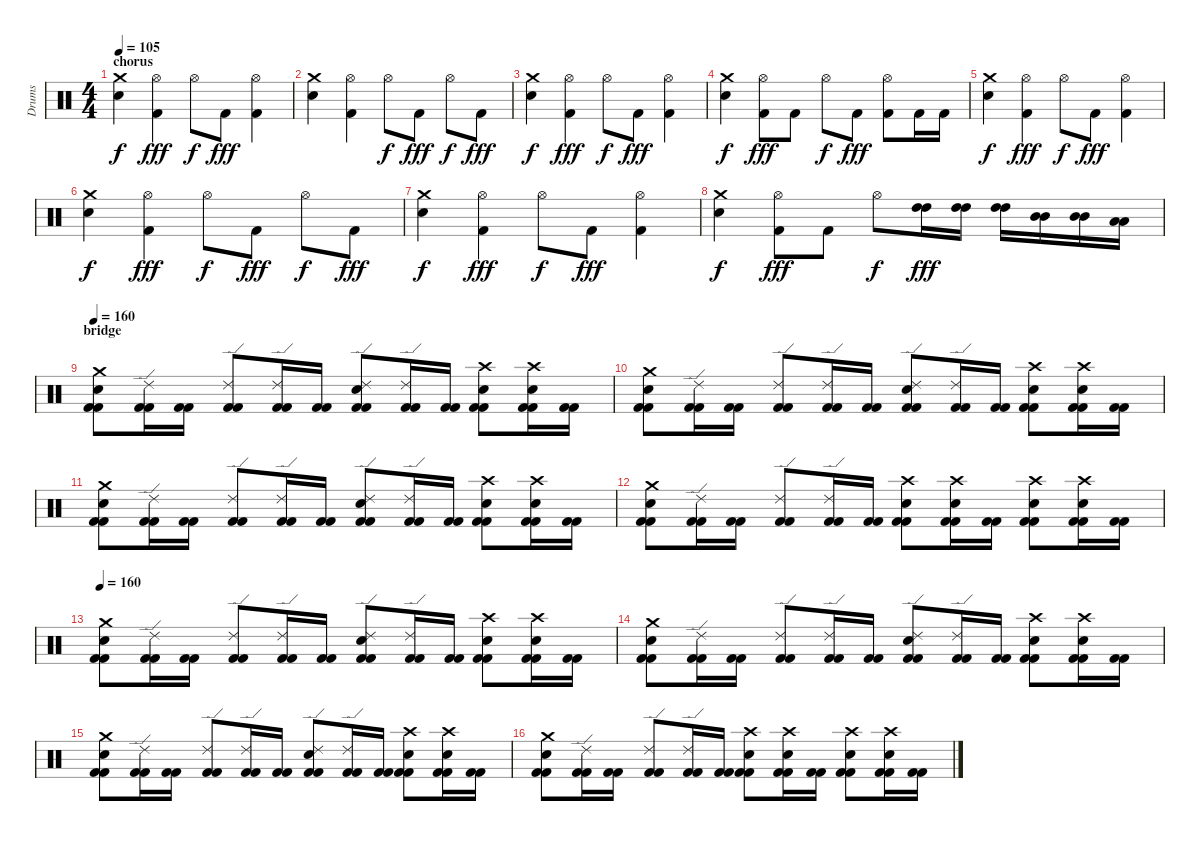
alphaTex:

\track ("Drums" "Drums") {instrument percussion}
\staff {score}
\articulation defaults
\ts (4 4)
\section ("" "chorus")
\tempo 105
\clef neutral
\ks c
("Crash medium (hit)" "Electric Snare (hit)").4{dy f} ("Hi-Hat (open)" "Kick (hit) 2").4{dy fff} "Hi-Hat (open)".8{dy f} "Kick (hit) 2".8{dy fff} ("Hi-Hat (open)" "Kick (hit) 2").4 |
("Crash medium (hit)" "Electric Snare (hit)").4 ("Hi-Hat (open)" "Kick (hit) 2").4 "Hi-Hat (open)".8{dy f} "Kick (hit) 2".8{dy fff} "Hi-Hat (open)".8{dy f} "Kick (hit) 2".8{dy fff} |
("Crash medium (hit)" "Electric Snare (hit)").4{dy f} ("Hi-Hat (open)" "Kick (hit) 2").4{dy fff} "Hi-Hat (open)".8{dy f} "Kick (hit) 2".8{dy fff} ("Hi-Hat (open)" "Kick (hit) 2").4 |
("Crash medium (hit)" "Electric Snare (hit)").4{dy f} ("Hi-Hat (open)" "Kick (hit) 2").8{dy fff} "Kick (hit) 2".8 "Hi-Hat (open)".8{dy f} "Kick (hit) 2".8{dy fff} ("Hi-Hat (open)" "Kick (hit) 2").8 "Kick (hit) 2".16 "Kick (hit) 2".16 |
("Crash medium (hit)" "Electric Snare (hit)").4{dy f} ("Hi-Hat (open)" "Kick (hit) 2").4{dy fff} "Hi-Hat (open)".8{dy f} "Kick (hit) 2".8{dy fff} ("Hi-Hat (open)" "Kick (hit) 2").4 |
("Crash medium (hit)" "Electric Snare (hit)").4{dy f} ("Hi-Hat (open)" "Kick (hit) 2").4{dy fff} "Hi-Hat (open)".8{dy f} "Kick (hit) 2".8{dy fff} "Hi-Hat (open)".8{dy f} "Kick (hit) 2".8{dy fff} |
("Crash medium (hit)" "Electric Snare (hit)").4{dy f} ("Hi-Hat (open)" "Kick (hit) 2").4{dy fff} "Hi-Hat (open)".8{dy f} "Kick (hit) 2".8{dy fff} ("Hi-Hat (open)" "Kick (hit) 2").4 |
("Crash medium (hit)" "Electric Snare (hit)").4{dy f} ("Hi-Hat (open)" "Kick (hit) 2").8{dy fff} "Kick (hit) 2".8 "Hi-Hat (open)".8{dy f} ("High Tom (hit)" "High Tom (hit)").16{dy fff} ("High Tom (hit)" "High Tom (hit)").16 ("High Tom (hit)" "High Tom (hit)").16 ("Mid Tom (hit)" "Mid Tom (hit)").16 ("Mid Tom (hit)" "Mid Tom (hit)").16 ("Low Tom (hit)" "Low Tom (hit)").16 |
\section ("" "bridge")
\tempo 160
("Crash medium (hit)" "Electric Snare (hit)" "Kick (hit) 2" "Kick (hit) 2").8 ("Ride (edge) 2" "Kick (hit) 2" "Kick (hit) 2").16 ("Kick (hit) 2" "Kick (hit) 2").16 ("Ride (edge) 2" "Kick (hit) 2" "Kick (hit) 2").8 ("Ride (edge) 2" "Kick (hit) 2" "Kick (hit) 2").16 ("Kick (hit) 2" "Kick (hit) 2").16 ("Ride (edge) 2" "Electric Snare (hit)" "Kick (hit) 2" "Kick (hit) 2").8 ("Ride (edge) 2" "Kick (hit) 2" "Kick (hit) 2").16 ("Kick (hit) 2" "Kick (hit) 2").16 ("Crash high (hit)" "Electric Snare (hit)" "Kick (hit) 2" "Kick (hit) 2").8 ("Crash high (hit)" "Electric Snare (hit)" "Kick (hit) 2" "Kick (hit) 2").16 ("Kick (hit) 2" "Kick (hit) 2").16 |
("Crash medium (hit)" "Electric Snare (hit)" "Kick (hit) 2" "Kick (hit) 2").8 ("Ride (edge) 2" "Kick (hit) 2" "Kick (hit) 2").16 ("Kick (hit) 2" "Kick (hit) 2").16 ("Ride (edge) 2" "Kick (hit) 2" "Kick (hit) 2").8 ("Ride (edge) 2" "Kick (hit) 2" "Kick (hit) 2").16 ("Kick (hit) 2" "Kick (hit) 2").16 ("Ride (edge) 2" "Electric Snare (hit)" "Kick (hit) 2" "Kick (hit) 2").8 ("Ride (edge) 2" "Kick (hit) 2" "Kick (hit) 2").16 ("Kick (hit) 2" "Kick (hit) 2").16 ("Crash high (hit)" "Electric Snare (hit)" "Kick (hit) 2" "Kick (hit) 2").8 ("Crash high (hit)" "Electric Snare (hit)" "Kick (hit) 2" "Kick (hit) 2").16 ("Kick (hit) 2" "Kick (hit) 2").16 |
("Crash medium (hit)" "Electric Snare (hit)" "Kick (hit) 2" "Kick (hit) 2").8 ("Ride (edge) 2" "Kick (hit) 2" "Kick (hit) 2").16 ("Kick (hit) 2" "Kick (hit) 2").16 ("Ride (edge) 2" "Kick (hit) 2" "Kick (hit) 2").8 ("Ride (edge) 2" "Kick (hit) 2" "Kick (hit) 2").16 ("Kick (hit) 2" "Kick (hit) 2").16 ("Ride (edge) 2" "Electric Snare (hit)" "Kick (hit) 2" "Kick (hit) 2").8 ("Ride (edge) 2" "Kick (hit) 2" "Kick (hit) 2").16 ("Kick (hit) 2" "Kick (hit) 2").16 ("Crash high (hit)" "Electric Snare (hit)" "Kick (hit) 2" "Kick (hit) 2").8 ("Crash high (hit)" "Electric Snare (hit)" "Kick (hit) 2" "Kick (hit) 2").16 ("Kick (hit) 2" "Kick (hit) 2").16 |
("Crash medium (hit)" "Electric Snare (hit)" "Kick (hit) 2" "Kick (hit) 2").8 ("Ride (edge) 2" "Kick (hit) 2" "Kick (hit) 2").16 ("Kick (hit) 2" "Kick (hit) 2").16 ("Ride (edge) 2" "Kick (hit) 2" "Kick (hit) 2").8 ("Ride (edge) 2" "Kick (hit) 2" "Kick (hit) 2").16 ("Kick (hit) 2" "Kick (hit) 2").16 ("Crash high (hit)" "Electric Snare (hit)" "Kick (hit) 2" "Kick (hit) 2").8 ("Crash high (hit)" "Electric Snare (hit)" "Kick (hit) 2" "Kick (hit) 2").16 ("Kick (hit) 2" "Kick (hit) 2").16 ("Crash high (hit)" "Electric Snare (hit)" "Kick (hit) 2" "Kick (hit) 2").8 ("Crash high (hit)" "Electric Snare (hit)" "Kick (hit) 2" "Kick (hit) 2").16 ("Kick (hit) 2" "Kick (hit) 2").16 |
\tempo 160
("Crash medium (hit)" "Electric Snare (hit)" "Kick (hit) 2" "Kick (hit) 2").8 ("Ride (edge) 2" "Kick (hit) 2" "Kick (hit) 2").16 ("Kick (hit) 2" "Kick (hit) 2").16 ("Ride (edge) 2" "Kick (hit) 2" "Kick (hit) 2").8 ("Ride (edge) 2" "Kick (hit) 2" "Kick (hit) 2").16 ("Kick (hit) 2" "Kick (hit) 2").16 ("Ride (edge) 2" "Electric Snare (hit)" "Kick (hit) 2" "Kick (hit) 2").8 ("Ride (edge) 2" "Kick (hit) 2" "Kick (hit) 2").16 ("Kick (hit) 2" "Kick (hit) 2").16 ("Crash high (hit)" "Electric Snare (hit)" "Kick (hit) 2" "Kick (hit) 2").8 ("Crash high (hit)" "Electric Snare (hit)" "Kick (hit) 2" "Kick (hit) 2").16 ("Kick (hit) 2" "Kick (hit) 2").16 |
("Crash medium (hit)" "Electric Snare (hit)" "Kick (hit) 2" "Kick (hit) 2").8 ("Ride (edge) 2" "Kick (hit) 2" "Kick (hit) 2").16 ("Kick (hit) 2" "Kick (hit) 2").16 ("Ride (edge) 2" "Kick (hit) 2" "Kick (hit) 2").8 ("Ride (edge) 2" "Kick (hit) 2" "Kick (hit) 2").16 ("Kick (hit) 2" "Kick (hit) 2").16 ("Ride (edge) 2" "Electric Snare (hit)" "Kick (hit) 2" "Kick (hit) 2").8 ("Ride (edge) 2" "Kick (hit) 2" "Kick (hit) 2").16 ("Kick (hit) 2" "Kick (hit) 2").16 ("Crash high (hit)" "Electric Snare (hit)" "Kick (hit) 2" "Kick (hit) 2").8 ("Crash high (hit)" "Electric Snare (hit)" "Kick (hit) 2" "Kick (hit) 2").16 ("Kick (hit) 2" "Kick (hit) 2").16 |
("Crash medium (hit)" "Electric Snare (hit)" "Kick (hit) 2" "Kick (hit) 2").8 ("Ride (edge) 2" "Kick (hit) 2" "Kick (hit) 2").16 ("Kick (hit) 2" "Kick (hit) 2").16 ("Ride (edge) 2" "Kick (hit) 2" "Kick (hit) 2").8 ("Ride (edge) 2" "Kick (hit) 2" "Kick (hit) 2").16 ("Kick (hit) 2" "Kick (hit) 2").16 ("Ride (edge) 2" "Electric Snare (hit)" "Kick (hit) 2" "Kick (hit) 2").8 ("Ride (edge) 2" "Kick (hit) 2" "Kick (hit) 2").16 ("Kick (hit) 2" "Kick (hit) 2").16 ("Crash high (hit)" "Electric Snare (hit)" "Kick (hit) 2" "Kick (hit) 2").8 ("Crash high (hit)" "Electric Snare (hit)" "Kick (hit) 2" "Kick (hit) 2").16 ("Kick (hit) 2" "Kick (hit) 2").16 |
("Crash medium (hit)" "Electric Snare (hit)" "Kick (hit) 2" "Kick (hit) 2").8 ("Ride (edge) 2" "Kick (hit) 2" "Kick (hit) 2").16 ("Kick (hit) 2" "Kick (hit) 2").16 ("Ride (edge) 2" "Kick (hit) 2" "Kick (hit) 2").8 ("Ride (edge) 2" "Kick (hit) 2" "Kick (hit) 2").16 ("Kick (hit) 2" "Kick (hit) 2").16 ("Crash high (hit)" "Electric Snare (hit)" "Kick (hit) 2" "Kick (hit) 2").8 ("Crash high (hit)" "Electric Snare (hit)" "Kick (hit) 2" "Kick (hit) 2").16 ("Kick (hit) 2" "Kick (hit) 2").16 ("Crash high (hit)" "Electric Snare (hit)" "Kick (hit) 2" "Kick (hit) 2").8 ("Crash high (hit)" "Electric Snare (hit)" "Kick (hit) 2" "Kick (hit) 2").16 ("Kick (hit) 2" "Kick (hit) 2").16
